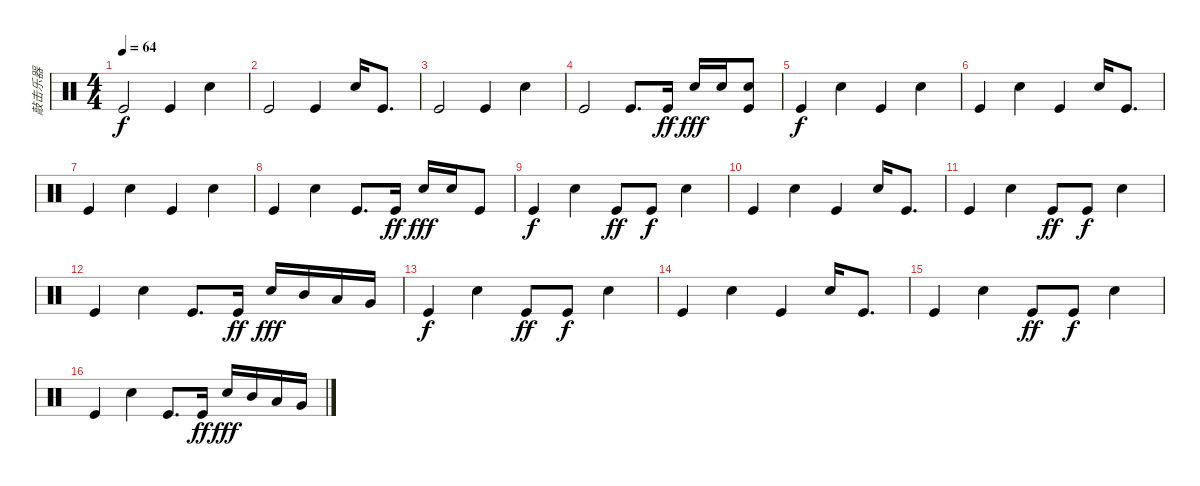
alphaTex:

\track ("敲击乐器" "敲击乐器") {instrument percussion}
\staff {score}
\articulation defaults
\ts (4 4)
\tempo 64
\clef neutral
\ks c "Kick (hit)".2{dy f} "Kick (hit)".4 "Snare (hit) 2".4
|
"Kick (hit)".2 "Kick (hit)".4 "Snare (hit) 2".16 "Kick (hit)".8{d} |
"Kick (hit)".2 "Kick (hit)".4 "Snare (hit) 2".4 |
"Kick (hit)".2 "Kick (hit)".8{d} "Kick (hit)".16{dy ff} "Snare (hit) 2".16{dy fff} "Snare (hit) 2".16 ("Kick (hit)" "Snare (hit) 2").8 |
"Kick (hit)".4{dy f} "Snare (hit) 2".4 "Kick (hit)".4 "Snare (hit) 2".4 |
"Kick (hit)".4 "Snare (hit) 2".4 "Kick (hit)".4 "Snare (hit) 2".16 "Kick (hit)".8{d} |
"Kick (hit)".4 "Snare (hit) 2".4 "Kick (hit)".4 "Snare (hit) 2".4 |
"Kick (hit)".4 "Snare (hit) 2".4 "Kick (hit)".8{d} "Kick (hit)".16{dy ff} "Snare (hit) 2".16{dy fff} "Snare (hit) 2".16 "Kick (hit)".8 |
"Kick (hit)".4{dy f} "Snare (hit) 2".4 "Kick (hit)".8{dy ff} "Kick (hit)".8{dy f} "Snare (hit) 2".4 |
"Kick (hit)".4 "Snare (hit) 2".4 "Kick (hit)".4 "Snare (hit) 2".16 "Kick (hit)".8{d} |
"Kick (hit)".4 "Snare (hit) 2".4 "Kick (hit)".8{dy ff} "Kick (hit)".8{dy f} "Snare (hit) 2".4 |
"Kick (hit)".4 "Snare (hit) 2".4 "Kick (hit)".8{d} "Kick (hit)".16{dy ff} "Snare (hit) 2".16{dy fff} "Mid Tom (hit)".16 "Low Tom (hit)".16 "Very Low Tom (hit)".16 |
"Kick (hit)".4{dy f} "Snare (hit) 2".4 "Kick (hit)".8{dy ff} "Kick (hit)".8{dy f} "Snare (hit) 2".4 |
"Kick (hit)".4 "Snare (hit) 2".4 "Kick (hit)".4 "Snare (hit) 2".16 "Kick (hit)".8{d} |
"Kick (hit)".4 "Snare (hit) 2".4 "Kick (hit)".8{dy ff} "Kick (hit)".8{dy f} "Snare (hit) 2".4 |
"Kick (hit)".4 "Snare (hit) 2".4 "Kick (hit)".8{d} "Kick (hit)".16{dy ff} "Snare (hit) 2".16{dy fff} "Mid Tom (hit)".16 "Low Tom (hit)".16 "Very Low Tom (hit)".16
